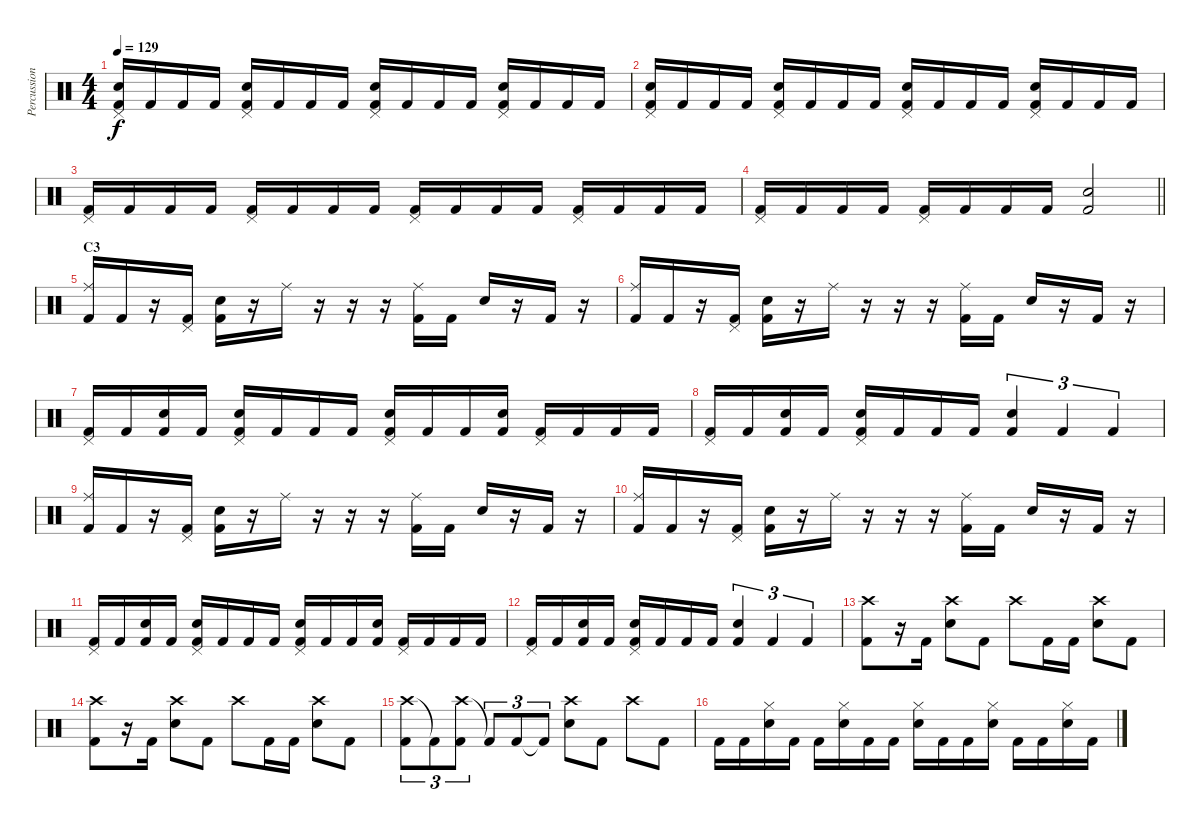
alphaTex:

\track ("Percussion" "Percussion") {instrument percussion}
\staff {score}
\articulation defaults
\ts (4 4)
\tempo 129
\clef neutral
\ks c
("Pedal Hi-Hat (hit)" "Snare (hit) 2" "Kick (hit) 2").16{dy f} "Kick (hit) 2".16 "Kick (hit) 2".16 "Kick (hit) 2".16 ("Pedal Hi-Hat (hit)" "Snare (hit) 2" "Kick (hit) 2").16 "Kick (hit) 2".16 "Kick (hit) 2".16 "Kick (hit) 2".16 ("Pedal Hi-Hat (hit)" "Snare (hit) 2" "Kick (hit) 2").16 "Kick (hit) 2".16 "Kick (hit) 2".16 "Kick (hit) 2".16 ("Pedal Hi-Hat (hit)" "Snare (hit) 2" "Kick (hit) 2").16 "Kick (hit) 2".16 "Kick (hit) 2".16 "Kick (hit) 2".16 |
("Pedal Hi-Hat (hit)" "Snare (hit) 2" "Kick (hit) 2").16 "Kick (hit) 2".16 "Kick (hit) 2".16 "Kick (hit) 2".16 ("Pedal Hi-Hat (hit)" "Snare (hit) 2" "Kick (hit) 2").16 "Kick (hit) 2".16 "Kick (hit) 2".16 "Kick (hit) 2".16 ("Pedal Hi-Hat (hit)" "Snare (hit) 2" "Kick (hit) 2").16 "Kick (hit) 2".16 "Kick (hit) 2".16 "Kick (hit) 2".16 ("Pedal Hi-Hat (hit)" "Snare (hit) 2" "Kick (hit) 2").16 "Kick (hit) 2".16 "Kick (hit) 2".16 "Kick (hit) 2".16 |
("Pedal Hi-Hat (hit)" "Kick (hit) 2").16 "Kick (hit) 2".16 "Kick (hit) 2".16 "Kick (hit) 2".16 ("Pedal Hi-Hat (hit)" "Kick (hit) 2").16 "Kick (hit) 2".16 "Kick (hit) 2".16 "Kick (hit) 2".16 ("Pedal Hi-Hat (hit)" "Kick (hit) 2").16 "Kick (hit) 2".16 "Kick (hit) 2".16 "Kick (hit) 2".16 ("Pedal Hi-Hat (hit)" "Kick (hit) 2").16 "Kick (hit) 2".16 "Kick (hit) 2".16 "Kick (hit) 2".16 |
\barLineRight lightlight
("Pedal Hi-Hat (hit)" "Kick (hit) 2").16 "Kick (hit) 2".16 "Kick (hit) 2".16 "Kick (hit) 2".16 ("Pedal Hi-Hat (hit)" "Kick (hit) 2").16 "Kick (hit) 2".16 "Kick (hit) 2".16 "Kick (hit) 2".16 ("Snare (hit) 2" "Kick (hit) 2").2 |
\section ("" "C3")
("Ride (middle)" "Kick (hit) 2").16 "Kick (hit) 2".16 r.16 ("Pedal Hi-Hat (hit)" "Kick (hit) 2").16 ("Snare (hit) 2" "Kick (hit) 2").16 r.16 "Ride (middle)".16 r.16 r.16 r.16 ("Ride (middle)" "Kick (hit) 2").16 "Kick (hit) 2".16 "Snare (hit) 2".16 r.16 "Kick (hit) 2".16 r.16 |
("Ride (middle)" "Kick (hit) 2").16 "Kick (hit) 2".16 r.16 ("Pedal Hi-Hat (hit)" "Kick (hit) 2").16 ("Snare (hit) 2" "Kick (hit) 2").16 r.16 "Ride (middle)".16 r.16 r.16 r.16 ("Ride (middle)" "Kick (hit) 2").16 "Kick (hit) 2".16 "Snare (hit) 2".16 r.16 "Kick (hit) 2".16 r.16 |
("Pedal Hi-Hat (hit)" "Kick (hit) 2").16 "Kick (hit) 2".16 ("Snare (hit) 2" "Kick (hit) 2").16 "Kick (hit) 2".16 ("Pedal Hi-Hat (hit)" "Snare (hit) 2" "Kick (hit) 2").16 "Kick (hit) 2".16 "Kick (hit) 2".16 "Kick (hit) 2".16 ("Pedal Hi-Hat (hit)" "Snare (hit) 2" "Kick (hit) 2").16 "Kick (hit) 2".16 "Kick (hit) 2".16 ("Snare (hit) 2" "Kick (hit) 2").16 ("Pedal Hi-Hat (hit)" "Kick (hit) 2").16 "Kick (hit) 2".16 "Kick (hit) 2".16 "Kick (hit) 2".16 |
("Pedal Hi-Hat (hit)" "Kick (hit) 2").16 "Kick (hit) 2".16 ("Snare (hit) 2" "Kick (hit) 2").16 "Kick (hit) 2".16 ("Pedal Hi-Hat (hit)" "Snare (hit) 2" "Kick (hit) 2").16 "Kick (hit) 2".16 "Kick (hit) 2".16 "Kick (hit) 2".16 ("Snare (hit) 2" "Kick (hit) 2").4{tu (3 2)} "Kick (hit) 2".4{tu (3 2)} "Kick (hit) 2".4{tu (3 2)} |
("Ride (middle)" "Kick (hit) 2").16 "Kick (hit) 2".16 r.16 ("Pedal Hi-Hat (hit)" "Kick (hit) 2").16 ("Snare (hit) 2" "Kick (hit) 2").16 r.16 "Ride (middle)".16 r.16 r.16 r.16 ("Ride (middle)" "Kick (hit) 2").16 "Kick (hit) 2".16 "Snare (hit) 2".16 r.16 "Kick (hit) 2".16 r.16 |
("Ride (middle)" "Kick (hit) 2").16 "Kick (hit) 2".16 r.16 ("Pedal Hi-Hat (hit)" "Kick (hit) 2").16 ("Snare (hit) 2" "Kick (hit) 2").16 r.16 "Ride (middle)".16 r.16 r.16 r.16 ("Ride (middle)" "Kick (hit) 2").16 "Kick (hit) 2".16 "Snare (hit) 2".16 r.16 "Kick (hit) 2".16 r.16 |
("Pedal Hi-Hat (hit)" "Kick (hit) 2").16 "Kick (hit) 2".16 ("Snare (hit) 2" "Kick (hit) 2").16 "Kick (hit) 2".16 ("Pedal Hi-Hat (hit)" "Snare (hit) 2" "Kick (hit) 2").16 "Kick (hit) 2".16 "Kick (hit) 2".16 "Kick (hit) 2".16 ("Pedal Hi-Hat (hit)" "Snare (hit) 2" "Kick (hit) 2").16 "Kick (hit) 2".16 "Kick (hit) 2".16 ("Snare (hit) 2" "Kick (hit) 2").16 ("Pedal Hi-Hat (hit)" "Kick (hit) 2").16 "Kick (hit) 2".16 "Kick (hit) 2".16 "Kick (hit) 2".16 |
("Pedal Hi-Hat (hit)" "Kick (hit) 2").16 "Kick (hit) 2".16 ("Snare (hit) 2" "Kick (hit) 2").16 "Kick (hit) 2".16 ("Pedal Hi-Hat (hit)" "Snare (hit) 2" "Kick (hit) 2").16 "Kick (hit) 2".16 "Kick (hit) 2".16 "Kick (hit) 2".16 ("Snare (hit) 2" "Kick (hit) 2").4{tu (3 2)} "Kick (hit) 2".4{tu (3 2)} "Kick (hit) 2".4{tu (3 2)} |
("Crash high (hit)" "Kick (hit) 2").8 r.16 "Kick (hit) 2".16 ("Crash high (hit)" "Snare (hit) 2").8 "Kick (hit) 2".8 "Crash high (hit)".8 "Kick (hit) 2".16 "Kick (hit) 2".16 ("Crash high (hit)" "Snare (hit) 2").8 "Kick (hit) 2".8 |
("Crash high (hit)" "Kick (hit) 2").8 r.16 "Kick (hit) 2".16 ("Crash high (hit)" "Snare (hit) 2").8 "Kick (hit) 2".8 "Crash high (hit)".8 "Kick (hit) 2".16 "Kick (hit) 2".16 ("Crash high (hit)" "Snare (hit) 2").8 "Kick (hit) 2".8 |
("Crash high (hit)" "Kick (hit) 2").8{tu (3 2)} "Kick (hit) 2"{t}.8{tu (3 2)} ("Crash high (hit)" "Kick (hit) 2").8{tu (3 2)} "Kick (hit) 2"{t}.8{tu (3 2)} "Kick (hit) 2".8{tu (3 2)} "Kick (hit) 2"{t}.8{tu (3 2)} ("Crash high (hit)" "Snare (hit) 2").8 "Kick (hit) 2".8 "Crash high (hit)".8 "Kick (hit) 2".8 |
"Kick (hit) 2".16 "Kick (hit) 2".16 ("Hi-Hat (closed)" "Snare (hit) 2").16 "Kick (hit) 2".16 "Kick (hit) 2".16 ("Hi-Hat (closed)" "Snare (hit) 2").16 "Kick (hit) 2".16 "Kick (hit) 2".16 ("Hi-Hat (closed)" "Snare (hit) 2").16 "Kick (hit) 2".16 "Kick (hit) 2".16 ("Hi-Hat (closed)" "Snare (hit) 2").16 "Kick (hit) 2".16 "Kick (hit) 2".16 ("Hi-Hat (closed)" "Snare (hit) 2").16 "Kick (hit) 2".16
